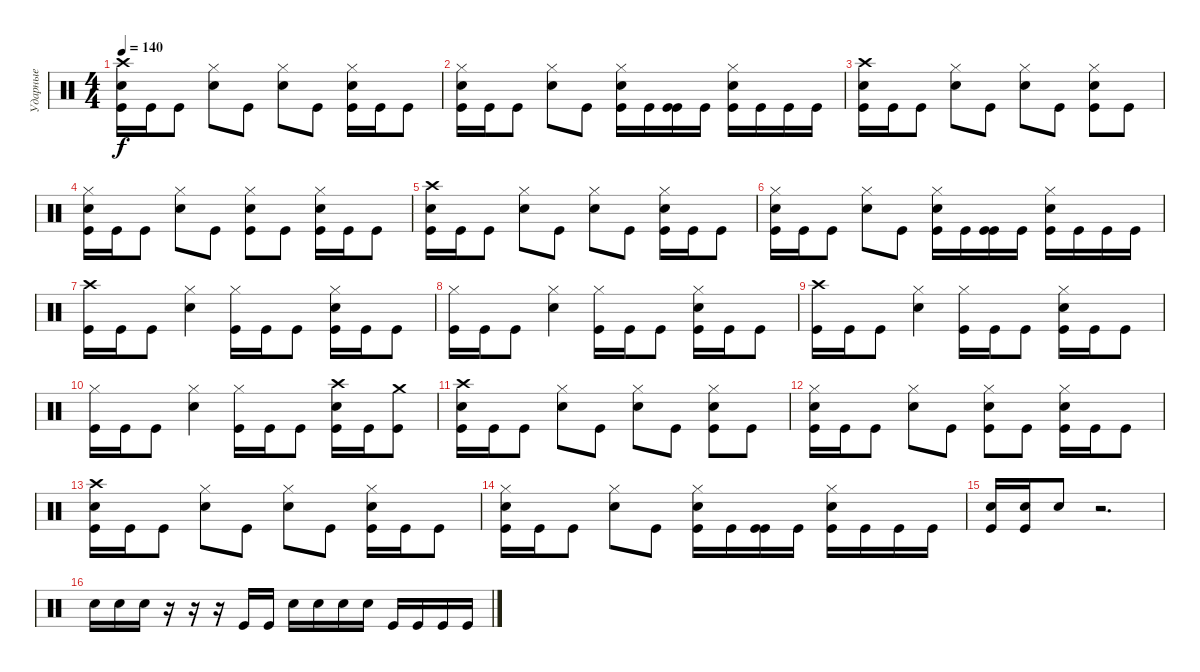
\track ("Ударные" "Ударные") {instrument percussion}
\staff {score}
\articulation defaults
\ts (4 4)
\tempo 140
\clef neutral
\ks c
("Crash high (hit)" "Electric Snare (hit)" "Kick (hit)").16{dy f} "Kick (hit)".16 "Kick (hit)".8 ("Hi-Hat (closed)" "Electric Snare (hit)").8 "Kick (hit)".8 ("Hi-Hat (closed)" "Electric Snare (hit)").8 "Kick (hit)".8 ("Hi-Hat (closed)" "Electric Snare (hit)" "Kick (hit)").16 "Kick (hit)".16 "Kick (hit)".8 |
("Hi-Hat (closed)" "Electric Snare (hit)" "Kick (hit)").16 "Kick (hit)".16 "Kick (hit)".8 ("Hi-Hat (closed)" "Electric Snare (hit)").8 "Kick (hit)".8 ("Hi-Hat (closed)" "Electric Snare (hit)" "Kick (hit)").16 "Kick (hit)".16 ("Kick (hit)" "Kick (hit)").16 "Kick (hit)".16 ("Hi-Hat (closed)" "Electric Snare (hit)" "Kick (hit)").16 "Kick (hit)".16 "Kick (hit)".16 "Kick (hit)".16 |
("Crash high (hit)" "Electric Snare (hit)" "Kick (hit)").16 "Kick (hit)".16 "Kick (hit)".8 ("Hi-Hat (closed)" "Electric Snare (hit)").8 "Kick (hit)".8 ("Hi-Hat (closed)" "Electric Snare (hit)").8 "Kick (hit)".8 ("Hi-Hat (closed)" "Electric Snare (hit)" "Kick (hit)").8 "Kick (hit)".8 |
("Hi-Hat (closed)" "Electric Snare (hit)" "Kick (hit)").16 "Kick (hit)".16 "Kick (hit)".8 ("Hi-Hat (closed)" "Electric Snare (hit)").8 "Kick (hit)".8 ("Hi-Hat (closed)" "Electric Snare (hit)" "Kick (hit)").8 "Kick (hit)".8 ("Hi-Hat (closed)" "Electric Snare (hit)" "Kick (hit)").16 "Kick (hit)".16 "Kick (hit)".8 |
("Crash high (hit)" "Electric Snare (hit)" "Kick (hit)").16 "Kick (hit)".16 "Kick (hit)".8 ("Hi-Hat (closed)" "Electric Snare (hit)").8 "Kick (hit)".8 ("Hi-Hat (closed)" "Electric Snare (hit)").8 "Kick (hit)".8 ("Hi-Hat (closed)" "Electric Snare (hit)" "Kick (hit)").16 "Kick (hit)".16 "Kick (hit)".8 |
("Hi-Hat (closed)" "Electric Snare (hit)" "Kick (hit)").16 "Kick (hit)".16 "Kick (hit)".8 ("Hi-Hat (closed)" "Electric Snare (hit)").8 "Kick (hit)".8 ("Hi-Hat (closed)" "Electric Snare (hit)" "Kick (hit)").16 "Kick (hit)".16 ("Kick (hit)" "Kick (hit)").16 "Kick (hit)".16 ("Hi-Hat (closed)" "Electric Snare (hit)" "Kick (hit)").16 "Kick (hit)".16 "Kick (hit)".16 "Kick (hit)".16 |
("Crash high (hit)" "Kick (hit)").16 "Kick (hit)".16 "Kick (hit)".8 ("Hi-Hat (closed)" "Electric Snare (hit)").4 ("Hi-Hat (closed)" "Kick (hit)").16 "Kick (hit)".16 "Kick (hit)".8 ("Hi-Hat (closed)" "Electric Snare (hit)" "Kick (hit)").16 "Kick (hit)".16 "Kick (hit)".8 |
("Hi-Hat (closed)" "Kick (hit)").16 "Kick (hit)".16 "Kick (hit)".8 ("Hi-Hat (closed)" "Electric Snare (hit)").4 ("Hi-Hat (closed)" "Kick (hit)").16 "Kick (hit)".16 "Kick (hit)".8 ("Hi-Hat (closed)" "Electric Snare (hit)" "Kick (hit)").16 "Kick (hit)".16 "Kick (hit)".8 |
("Crash high (hit)" "Kick (hit)").16 "Kick (hit)".16 "Kick (hit)".8 ("Hi-Hat (closed)" "Electric Snare (hit)").4 ("Hi-Hat (closed)" "Kick (hit)").16 "Kick (hit)".16 "Kick (hit)".8 ("Hi-Hat (closed)" "Electric Snare (hit)" "Kick (hit)").16 "Kick (hit)".16 "Kick (hit)".8 |
("Hi-Hat (closed)" "Kick (hit)").16 "Kick (hit)".16 "Kick (hit)".8 ("Hi-Hat (closed)" "Electric Snare (hit)").4 ("Hi-Hat (closed)" "Kick (hit)").16 "Kick (hit)".16 "Kick (hit)".8 ("Crash high (hit)" "Electric Snare (hit)" "Kick (hit)").16 "Kick (hit)".16 ("Crash medium (hit)" "Kick (hit)").8 |
("Crash high (hit)" "Electric Snare (hit)" "Kick (hit)").16 "Kick (hit)".16 "Kick (hit)".8 ("Hi-Hat (closed)" "Electric Snare (hit)").8 "Kick (hit)".8 ("Hi-Hat (closed)" "Electric Snare (hit)").8 "Kick (hit)".8 ("Hi-Hat (closed)" "Electric Snare (hit)" "Kick (hit)").8 "Kick (hit)".8 |
("Hi-Hat (closed)" "Electric Snare (hit)" "Kick (hit)").16 "Kick (hit)".16 "Kick (hit)".8 ("Hi-Hat (closed)" "Electric Snare (hit)").8 "Kick (hit)".8 ("Hi-Hat (closed)" "Electric Snare (hit)" "Kick (hit)").8 "Kick (hit)".8 ("Hi-Hat (closed)" "Electric Snare (hit)" "Kick (hit)").16 "Kick (hit)".16 "Kick (hit)".8 |
("Crash high (hit)" "Electric Snare (hit)" "Kick (hit)").16 "Kick (hit)".16 "Kick (hit)".8 ("Hi-Hat (closed)" "Electric Snare (hit)").8 "Kick (hit)".8 ("Hi-Hat (closed)" "Electric Snare (hit)").8 "Kick (hit)".8 ("Hi-Hat (closed)" "Electric Snare (hit)" "Kick (hit)").16 "Kick (hit)".16 "Kick (hit)".8 |
("Hi-Hat (closed)" "Electric Snare (hit)" "Kick (hit)").16 "Kick (hit)".16 "Kick (hit)".8 ("Hi-Hat (closed)" "Electric Snare (hit)").8 "Kick (hit)".8 ("Hi-Hat (closed)" "Electric Snare (hit)" "Kick (hit)").16 "Kick (hit)".16 ("Kick (hit)" "Kick (hit)").16 "Kick (hit)".16 ("Hi-Hat (closed)" "Electric Snare (hit)" "Kick (hit)").16 "Kick (hit)".16 "Kick (hit)".16 "Kick (hit)".16 |
("Electric Snare (hit)" "Kick (hit)").16 ("Electric Snare (hit)" "Kick (hit)").16 "Electric Snare (hit)".8 r.2{d} |
"Electric Snare (hit)".16 "Electric Snare (hit)".16 "Electric Snare (hit)".16 r.16 r.16 r.16 "Kick (hit)".16 "Kick (hit)".16 "Electric Snare (hit)".16 "Electric Snare (hit)".16 "Electric Snare (hit)".16 "Electric Snare (hit)".16 "Kick (hit)".16 "Kick (hit)".16 "Kick (hit)".16 "Kick (hit)".16
